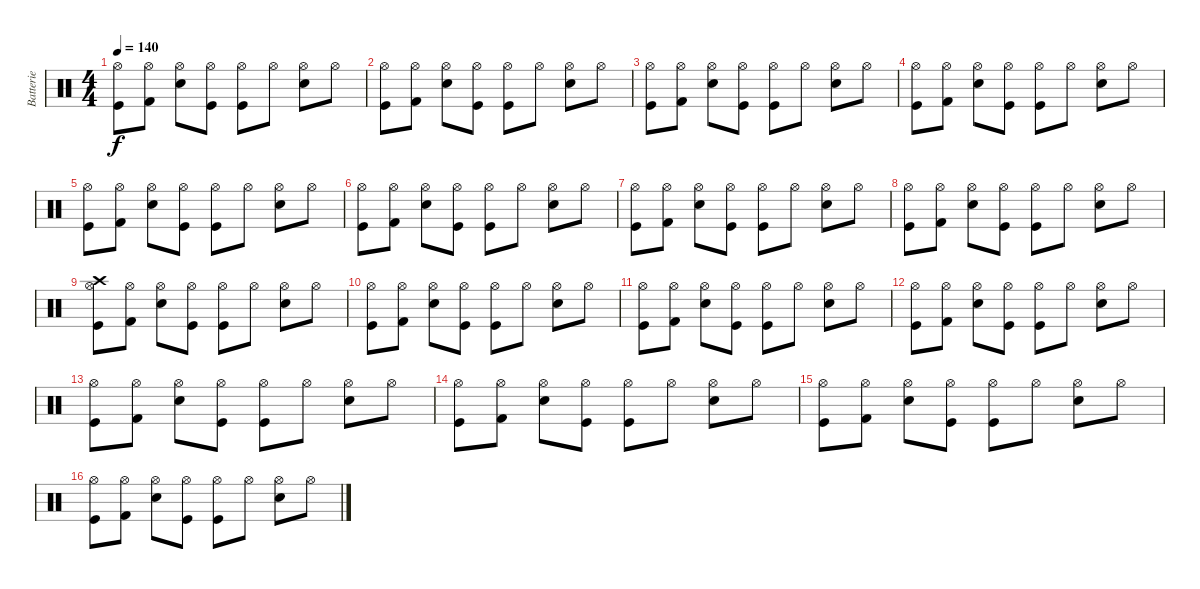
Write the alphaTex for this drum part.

\track ("Batterie" "Batterie") {instrument percussion}
\staff {score}
\articulation defaults
\ts (4 4)
\tempo 140
\clef neutral
\ks c
("Hi-Hat (open)" "Kick (hit)").8{dy f} ("Hi-Hat (open)" "Kick (hit) 2").8 ("Hi-Hat (open)" "Snare (hit) 2").8 ("Hi-Hat (open)" "Kick (hit)").8 ("Hi-Hat (open)" "Kick (hit)").8 "Hi-Hat (open)".8 ("Hi-Hat (open)" "Snare (hit) 2").8 "Hi-Hat (open)".8 |
("Hi-Hat (open)" "Kick (hit)").8 ("Hi-Hat (open)" "Kick (hit) 2").8 ("Hi-Hat (open)" "Snare (hit) 2").8 ("Hi-Hat (open)" "Kick (hit)").8 ("Hi-Hat (open)" "Kick (hit)").8 "Hi-Hat (open)".8 ("Hi-Hat (open)" "Snare (hit) 2").8 "Hi-Hat (open)".8 |
("Hi-Hat (open)" "Kick (hit)").8 ("Hi-Hat (open)" "Kick (hit) 2").8 ("Hi-Hat (open)" "Snare (hit) 2").8 ("Hi-Hat (open)" "Kick (hit)").8 ("Hi-Hat (open)" "Kick (hit)").8 "Hi-Hat (open)".8 ("Hi-Hat (open)" "Snare (hit) 2").8 "Hi-Hat (open)".8 |
("Hi-Hat (open)" "Kick (hit)").8 ("Hi-Hat (open)" "Kick (hit) 2").8 ("Hi-Hat (open)" "Snare (hit) 2").8 ("Hi-Hat (open)" "Kick (hit)").8 ("Hi-Hat (open)" "Kick (hit)").8 "Hi-Hat (open)".8 ("Hi-Hat (open)" "Snare (hit) 2").8 "Hi-Hat (open)".8 |
("Hi-Hat (open)" "Kick (hit)").8 ("Hi-Hat (open)" "Kick (hit) 2").8 ("Hi-Hat (open)" "Snare (hit) 2").8 ("Hi-Hat (open)" "Kick (hit)").8 ("Hi-Hat (open)" "Kick (hit)").8 "Hi-Hat (open)".8 ("Hi-Hat (open)" "Snare (hit) 2").8 "Hi-Hat (open)".8 |
("Hi-Hat (open)" "Kick (hit)").8 ("Hi-Hat (open)" "Kick (hit) 2").8 ("Hi-Hat (open)" "Snare (hit) 2").8 ("Hi-Hat (open)" "Kick (hit)").8 ("Hi-Hat (open)" "Kick (hit)").8 "Hi-Hat (open)".8 ("Hi-Hat (open)" "Snare (hit) 2").8 "Hi-Hat (open)".8 |
("Hi-Hat (open)" "Kick (hit)").8 ("Hi-Hat (open)" "Kick (hit) 2").8 ("Hi-Hat (open)" "Snare (hit) 2").8 ("Hi-Hat (open)" "Kick (hit)").8 ("Hi-Hat (open)" "Kick (hit)").8 "Hi-Hat (open)".8 ("Hi-Hat (open)" "Snare (hit) 2").8 "Hi-Hat (open)".8 |
("Hi-Hat (open)" "Kick (hit)").8 ("Hi-Hat (open)" "Kick (hit) 2").8 ("Hi-Hat (open)" "Snare (hit) 2").8 ("Hi-Hat (open)" "Kick (hit)").8 ("Hi-Hat (open)" "Kick (hit)").8 "Hi-Hat (open)".8 ("Hi-Hat (open)" "Snare (hit) 2").8 "Hi-Hat (open)".8 |
("Hi-Hat (open)" "Crash high (hit)" "Kick (hit)").8 ("Hi-Hat (open)" "Kick (hit) 2").8 ("Hi-Hat (open)" "Snare (hit) 2").8 ("Hi-Hat (open)" "Kick (hit)").8 ("Hi-Hat (open)" "Kick (hit)").8 "Hi-Hat (open)".8 ("Hi-Hat (open)" "Snare (hit) 2").8 "Hi-Hat (open)".8 |
("Hi-Hat (open)" "Kick (hit)").8 ("Hi-Hat (open)" "Kick (hit) 2").8 ("Hi-Hat (open)" "Snare (hit) 2").8 ("Hi-Hat (open)" "Kick (hit)").8 ("Hi-Hat (open)" "Kick (hit)").8 "Hi-Hat (open)".8 ("Hi-Hat (open)" "Snare (hit) 2").8 "Hi-Hat (open)".8 |
("Hi-Hat (open)" "Kick (hit)").8 ("Hi-Hat (open)" "Kick (hit) 2").8 ("Hi-Hat (open)" "Snare (hit) 2").8 ("Hi-Hat (open)" "Kick (hit)").8 ("Hi-Hat (open)" "Kick (hit)").8 "Hi-Hat (open)".8 ("Hi-Hat (open)" "Snare (hit) 2").8 "Hi-Hat (open)".8 |
("Hi-Hat (open)" "Kick (hit)").8 ("Hi-Hat (open)" "Kick (hit) 2").8 ("Hi-Hat (open)" "Snare (hit) 2").8 ("Hi-Hat (open)" "Kick (hit)").8 ("Hi-Hat (open)" "Kick (hit)").8 "Hi-Hat (open)".8 ("Hi-Hat (open)" "Snare (hit) 2").8 "Hi-Hat (open)".8 |
("Hi-Hat (open)" "Kick (hit)").8 ("Hi-Hat (open)" "Kick (hit) 2").8 ("Hi-Hat (open)" "Snare (hit) 2").8 ("Hi-Hat (open)" "Kick (hit)").8 ("Hi-Hat (open)" "Kick (hit)").8 "Hi-Hat (open)".8 ("Hi-Hat (open)" "Snare (hit) 2").8 "Hi-Hat (open)".8 |
("Hi-Hat (open)" "Kick (hit)").8 ("Hi-Hat (open)" "Kick (hit) 2").8 ("Hi-Hat (open)" "Snare (hit) 2").8 ("Hi-Hat (open)" "Kick (hit)").8 ("Hi-Hat (open)" "Kick (hit)").8 "Hi-Hat (open)".8 ("Hi-Hat (open)" "Snare (hit) 2").8 "Hi-Hat (open)".8 |
("Hi-Hat (open)" "Kick (hit)").8 ("Hi-Hat (open)" "Kick (hit) 2").8 ("Hi-Hat (open)" "Snare (hit) 2").8 ("Hi-Hat (open)" "Kick (hit)").8 ("Hi-Hat (open)" "Kick (hit)").8 "Hi-Hat (open)".8 ("Hi-Hat (open)" "Snare (hit) 2").8 "Hi-Hat (open)".8 |
("Hi-Hat (open)" "Kick (hit)").8 ("Hi-Hat (open)" "Kick (hit) 2").8 ("Hi-Hat (open)" "Snare (hit) 2").8 ("Hi-Hat (open)" "Kick (hit)").8 ("Hi-Hat (open)" "Kick (hit)").8 "Hi-Hat (open)".8 ("Hi-Hat (open)" "Snare (hit) 2").8 "Hi-Hat (open)".8
